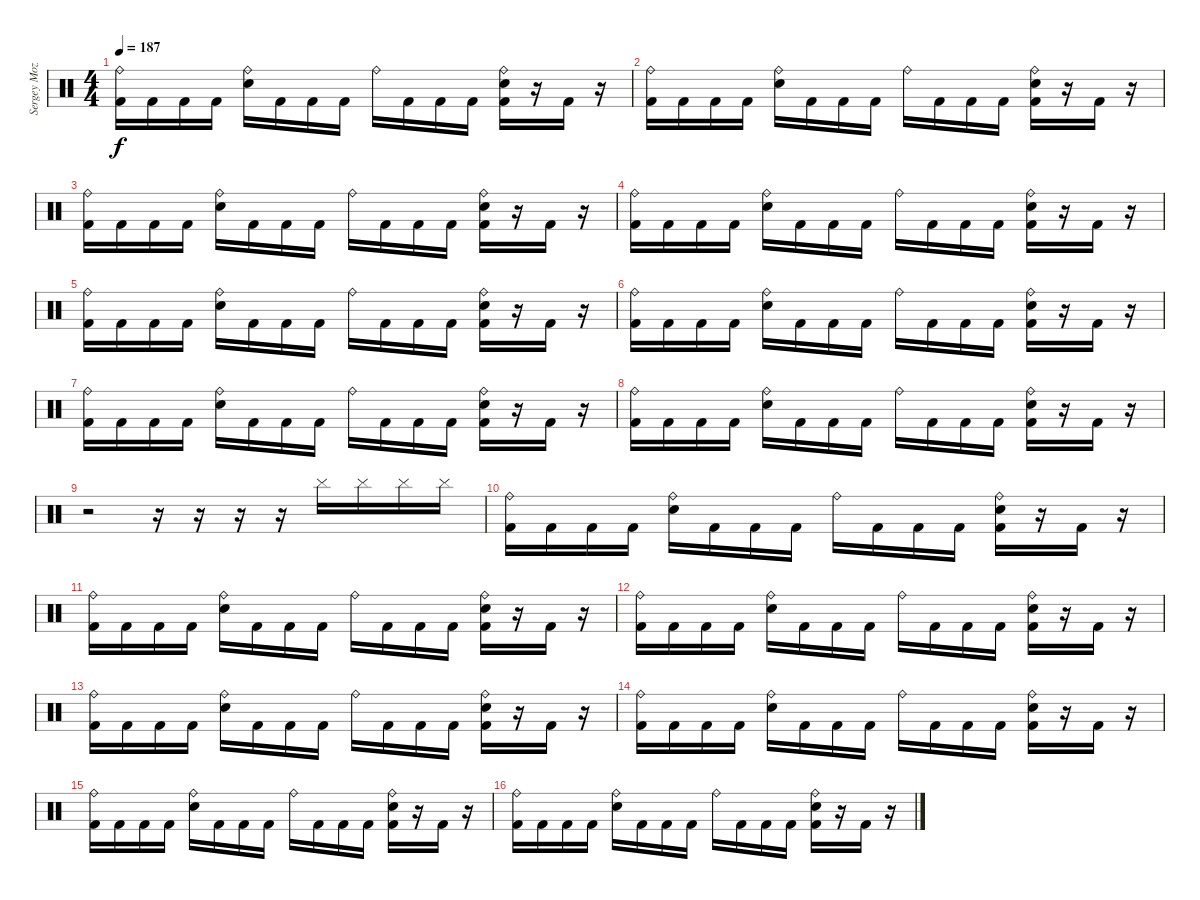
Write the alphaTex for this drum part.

\track ("Sergey Mozalev " "Sergey Moz") {instrument percussion}
\staff {score}
\articulation defaults
\ts (4 4)
\tempo 187
\clef neutral
\ks c
("Ride (bell)" "Kick (hit) 2").16{dy f} "Kick (hit) 2".16 "Kick (hit) 2".16 "Kick (hit) 2".16 ("Ride (bell)" "Electric Snare (hit)").16 "Kick (hit) 2".16 "Kick (hit) 2".16 "Kick (hit) 2".16 "Ride (bell)".16 "Kick (hit) 2".16 "Kick (hit) 2".16 "Kick (hit) 2".16 ("Electric Snare (hit)" "Ride (bell)" "Kick (hit) 2").16 r.16 "Kick (hit) 2".16 r.16 |
("Ride (bell)" "Kick (hit) 2").16 "Kick (hit) 2".16 "Kick (hit) 2".16 "Kick (hit) 2".16 ("Ride (bell)" "Electric Snare (hit)").16 "Kick (hit) 2".16 "Kick (hit) 2".16 "Kick (hit) 2".16 "Ride (bell)".16 "Kick (hit) 2".16 "Kick (hit) 2".16 "Kick (hit) 2".16 ("Electric Snare (hit)" "Ride (bell)" "Kick (hit) 2").16 r.16 "Kick (hit) 2".16 r.16 |
("Ride (bell)" "Kick (hit) 2").16 "Kick (hit) 2".16 "Kick (hit) 2".16 "Kick (hit) 2".16 ("Ride (bell)" "Electric Snare (hit)").16 "Kick (hit) 2".16 "Kick (hit) 2".16 "Kick (hit) 2".16 "Ride (bell)".16 "Kick (hit) 2".16 "Kick (hit) 2".16 "Kick (hit) 2".16 ("Electric Snare (hit)" "Ride (bell)" "Kick (hit) 2").16 r.16 "Kick (hit) 2".16 r.16 |
("Ride (bell)" "Kick (hit) 2").16 "Kick (hit) 2".16 "Kick (hit) 2".16 "Kick (hit) 2".16 ("Ride (bell)" "Electric Snare (hit)").16 "Kick (hit) 2".16 "Kick (hit) 2".16 "Kick (hit) 2".16 "Ride (bell)".16 "Kick (hit) 2".16 "Kick (hit) 2".16 "Kick (hit) 2".16 ("Electric Snare (hit)" "Ride (bell)" "Kick (hit) 2").16 r.16 "Kick (hit) 2".16 r.16 |
("Ride (bell)" "Kick (hit) 2").16 "Kick (hit) 2".16 "Kick (hit) 2".16 "Kick (hit) 2".16 ("Ride (bell)" "Electric Snare (hit)").16 "Kick (hit) 2".16 "Kick (hit) 2".16 "Kick (hit) 2".16 "Ride (bell)".16 "Kick (hit) 2".16 "Kick (hit) 2".16 "Kick (hit) 2".16 ("Electric Snare (hit)" "Ride (bell)" "Kick (hit) 2").16 r.16 "Kick (hit) 2".16 r.16 |
("Ride (bell)" "Kick (hit) 2").16 "Kick (hit) 2".16 "Kick (hit) 2".16 "Kick (hit) 2".16 ("Ride (bell)" "Electric Snare (hit)").16 "Kick (hit) 2".16 "Kick (hit) 2".16 "Kick (hit) 2".16 "Ride (bell)".16 "Kick (hit) 2".16 "Kick (hit) 2".16 "Kick (hit) 2".16 ("Electric Snare (hit)" "Ride (bell)" "Kick (hit) 2").16 r.16 "Kick (hit) 2".16 r.16 |
("Ride (bell)" "Kick (hit) 2").16 "Kick (hit) 2".16 "Kick (hit) 2".16 "Kick (hit) 2".16 ("Ride (bell)" "Electric Snare (hit)").16 "Kick (hit) 2".16 "Kick (hit) 2".16 "Kick (hit) 2".16 "Ride (bell)".16 "Kick (hit) 2".16 "Kick (hit) 2".16 "Kick (hit) 2".16 ("Electric Snare (hit)" "Ride (bell)" "Kick (hit) 2").16 r.16 "Kick (hit) 2".16 r.16 |
("Ride (bell)" "Kick (hit) 2").16 "Kick (hit) 2".16 "Kick (hit) 2".16 "Kick (hit) 2".16 ("Ride (bell)" "Electric Snare (hit)").16 "Kick (hit) 2".16 "Kick (hit) 2".16 "Kick (hit) 2".16 "Ride (bell)".16 "Kick (hit) 2".16 "Kick (hit) 2".16 "Kick (hit) 2".16 ("Electric Snare (hit)" "Ride (bell)" "Kick (hit) 2").16 r.16 "Kick (hit) 2".16 r.16 |
r.2 r.16 r.16 r.16 r.16 "Cymbal (hit)".16 "Cymbal (hit)".16 "Cymbal (hit)".16 "Cymbal (hit)".16 |
("Ride (bell)" "Kick (hit) 2").16 "Kick (hit) 2".16 "Kick (hit) 2".16 "Kick (hit) 2".16 ("Ride (bell)" "Electric Snare (hit)").16 "Kick (hit) 2".16 "Kick (hit) 2".16 "Kick (hit) 2".16 "Ride (bell)".16 "Kick (hit) 2".16 "Kick (hit) 2".16 "Kick (hit) 2".16 ("Electric Snare (hit)" "Ride (bell)" "Kick (hit) 2").16 r.16 "Kick (hit) 2".16 r.16 |
("Ride (bell)" "Kick (hit) 2").16 "Kick (hit) 2".16 "Kick (hit) 2".16 "Kick (hit) 2".16 ("Ride (bell)" "Electric Snare (hit)").16 "Kick (hit) 2".16 "Kick (hit) 2".16 "Kick (hit) 2".16 "Ride (bell)".16 "Kick (hit) 2".16 "Kick (hit) 2".16 "Kick (hit) 2".16 ("Electric Snare (hit)" "Ride (bell)" "Kick (hit) 2").16 r.16 "Kick (hit) 2".16 r.16 |
("Ride (bell)" "Kick (hit) 2").16 "Kick (hit) 2".16 "Kick (hit) 2".16 "Kick (hit) 2".16 ("Ride (bell)" "Electric Snare (hit)").16 "Kick (hit) 2".16 "Kick (hit) 2".16 "Kick (hit) 2".16 "Ride (bell)".16 "Kick (hit) 2".16 "Kick (hit) 2".16 "Kick (hit) 2".16 ("Electric Snare (hit)" "Ride (bell)" "Kick (hit) 2").16 r.16 "Kick (hit) 2".16 r.16 |
("Ride (bell)" "Kick (hit) 2").16 "Kick (hit) 2".16 "Kick (hit) 2".16 "Kick (hit) 2".16 ("Ride (bell)" "Electric Snare (hit)").16 "Kick (hit) 2".16 "Kick (hit) 2".16 "Kick (hit) 2".16 "Ride (bell)".16 "Kick (hit) 2".16 "Kick (hit) 2".16 "Kick (hit) 2".16 ("Electric Snare (hit)" "Ride (bell)" "Kick (hit) 2").16 r.16 "Kick (hit) 2".16 r.16 |
("Ride (bell)" "Kick (hit) 2").16 "Kick (hit) 2".16 "Kick (hit) 2".16 "Kick (hit) 2".16 ("Ride (bell)" "Electric Snare (hit)").16 "Kick (hit) 2".16 "Kick (hit) 2".16 "Kick (hit) 2".16 "Ride (bell)".16 "Kick (hit) 2".16 "Kick (hit) 2".16 "Kick (hit) 2".16 ("Electric Snare (hit)" "Ride (bell)" "Kick (hit) 2").16 r.16 "Kick (hit) 2".16 r.16 |
("Ride (bell)" "Kick (hit) 2").16 "Kick (hit) 2".16 "Kick (hit) 2".16 "Kick (hit) 2".16 ("Ride (bell)" "Electric Snare (hit)").16 "Kick (hit) 2".16 "Kick (hit) 2".16 "Kick (hit) 2".16 "Ride (bell)".16 "Kick (hit) 2".16 "Kick (hit) 2".16 "Kick (hit) 2".16 ("Electric Snare (hit)" "Ride (bell)" "Kick (hit) 2").16 r.16 "Kick (hit) 2".16 r.16 |
("Ride (bell)" "Kick (hit) 2").16 "Kick (hit) 2".16 "Kick (hit) 2".16 "Kick (hit) 2".16 ("Ride (bell)" "Electric Snare (hit)").16 "Kick (hit) 2".16 "Kick (hit) 2".16 "Kick (hit) 2".16 "Ride (bell)".16 "Kick (hit) 2".16 "Kick (hit) 2".16 "Kick (hit) 2".16 ("Electric Snare (hit)" "Ride (bell)" "Kick (hit) 2").16 r.16 "Kick (hit) 2".16 r.16
